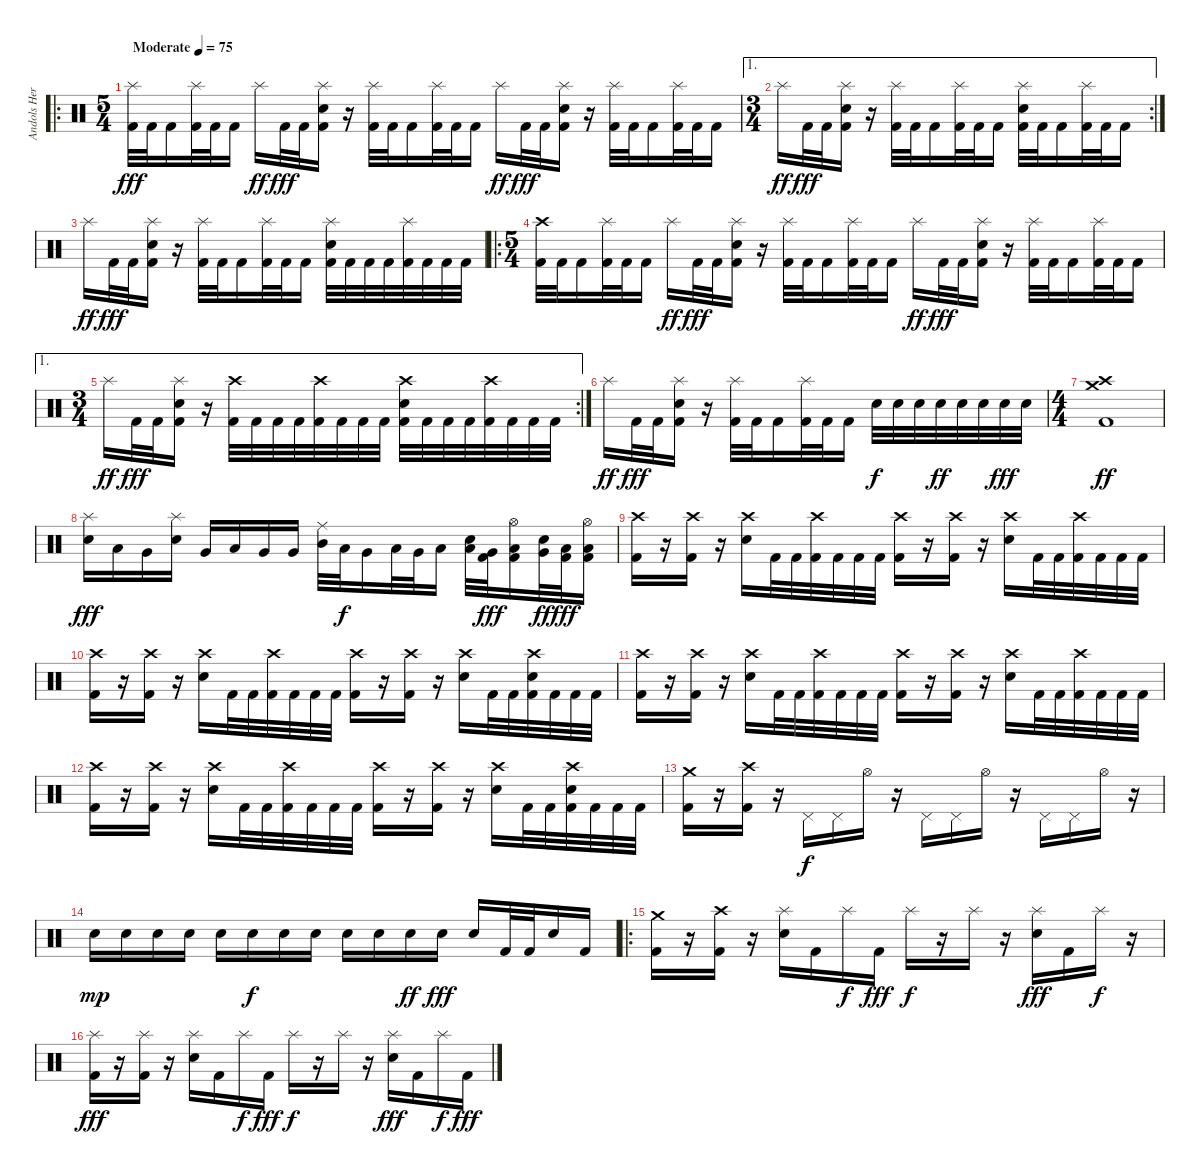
\track ("Andols Herrick" "Andols Her") {instrument percussion}
\staff {score}
\articulation defaults
\ro
\ts (5 4)
\tempo (75 "Moderate")
\clef neutral
\ks c
("Splash (hit)" "Kick (hit) 2").32{dy fff} "Kick (hit) 2".32 "Kick (hit) 2".16 ("Splash (hit)" "Kick (hit) 2").32 "Kick (hit) 2".32 "Kick (hit) 2".16 "Splash (hit)".16{dy ff} "Kick (hit) 2".32{dy fff} "Kick (hit) 2".32 ("Splash (hit)" "Snare (hit) 2" "Kick (hit) 2").16 r.16 ("Splash (hit)" "Kick (hit) 2").32 "Kick (hit) 2".32 "Kick (hit) 2".16 ("Splash (hit)" "Kick (hit) 2").32 "Kick (hit) 2".32 "Kick (hit) 2".16 "Splash (hit)".16{dy ff} "Kick (hit) 2".32{dy fff} "Kick (hit) 2".32 ("Splash (hit)" "Snare (hit) 2" "Kick (hit) 2").16 r.16 ("Splash (hit)" "Kick (hit) 2").32 "Kick (hit) 2".32 "Kick (hit) 2".16 ("Splash (hit)" "Kick (hit) 2").32 "Kick (hit) 2".32 "Kick (hit) 2".16 |
\ae 1
\rc 2
\ts (3 4)
"Splash (hit)".16{dy ff} "Kick (hit) 2".32{dy fff} "Kick (hit) 2".32 ("Splash (hit)" "Snare (hit) 2" "Kick (hit) 2").16 r.16 ("Splash (hit)" "Kick (hit) 2").32 "Kick (hit) 2".32 "Kick (hit) 2".16 ("Splash (hit)" "Kick (hit) 2").32 "Kick (hit) 2".32 "Kick (hit) 2".16 ("Splash (hit)" "Snare (hit) 2" "Kick (hit) 2").32 "Kick (hit) 2".32 "Kick (hit) 2".16 ("Splash (hit)" "Kick (hit) 2").32 "Kick (hit) 2".32 "Kick (hit) 2".16 |
"Splash (hit)".16{dy ff} "Kick (hit) 2".32{dy fff} "Kick (hit) 2".32 ("Splash (hit)" "Snare (hit) 2" "Kick (hit) 2").16 r.16 ("Splash (hit)" "Kick (hit) 2").32 "Kick (hit) 2".32 "Kick (hit) 2".16 ("Splash (hit)" "Kick (hit) 2").32 "Kick (hit) 2".32 "Kick (hit) 2".16 ("Splash (hit)" "Snare (hit) 2" "Kick (hit) 2").32 "Kick (hit) 2".32 "Kick (hit) 2".32 "Kick (hit) 2".32 ("Splash (hit)" "Kick (hit) 2").32 "Kick (hit) 2".32 "Kick (hit) 2".32 "Kick (hit) 2".32 |
\ro
\ts (5 4)
("Crash high (hit)" "Kick (hit) 2").32 "Kick (hit) 2".32 "Kick (hit) 2".16 ("Splash (hit)" "Kick (hit) 2").32 "Kick (hit) 2".32 "Kick (hit) 2".16 "Splash (hit)".16{dy ff} "Kick (hit) 2".32{dy fff} "Kick (hit) 2".32 ("Splash (hit)" "Snare (hit) 2" "Kick (hit) 2").16 r.16 ("Splash (hit)" "Kick (hit) 2").32 "Kick (hit) 2".32 "Kick (hit) 2".16 ("Splash (hit)" "Kick (hit) 2").32 "Kick (hit) 2".32 "Kick (hit) 2".16 "Splash (hit)".16{dy ff} "Kick (hit) 2".32{dy fff} "Kick (hit) 2".32 ("Splash (hit)" "Snare (hit) 2" "Kick (hit) 2").16 r.16 ("Splash (hit)" "Kick (hit) 2").32 "Kick (hit) 2".32 "Kick (hit) 2".16 ("Splash (hit)" "Kick (hit) 2").32 "Kick (hit) 2".32 "Kick (hit) 2".16 |
\ae 1
\rc 2
\ts (3 4)
"Splash (hit)".16{dy ff} "Kick (hit) 2".32{dy fff} "Kick (hit) 2".32 ("Splash (hit)" "Snare (hit) 2" "Kick (hit) 2").16 r.16 ("Crash high (hit)" "Kick (hit) 2").32 "Kick (hit) 2".32 "Kick (hit) 2".32 "Kick (hit) 2".32 ("Crash high (hit)" "Kick (hit) 2").32 "Kick (hit) 2".32 "Kick (hit) 2".32 "Kick (hit) 2".32 ("Crash high (hit)" "Snare (hit) 2" "Kick (hit) 2").32 "Kick (hit) 2".32 "Kick (hit) 2".32 "Kick (hit) 2".32 ("Crash high (hit)" "Kick (hit) 2").32 "Kick (hit) 2".32 "Kick (hit) 2".32 "Kick (hit) 2".32 |
"Splash (hit)".16{dy ff} "Kick (hit) 2".32{dy fff} "Kick (hit) 2".32 ("Splash (hit)" "Snare (hit) 2" "Kick (hit) 2").16 r.16 ("Splash (hit)" "Kick (hit) 2").32 "Kick (hit) 2".32 "Kick (hit) 2".16 ("Splash (hit)" "Kick (hit) 2").32 "Kick (hit) 2".32 "Kick (hit) 2".16 "Electric Snare (hit)".32{dy f} "Electric Snare (hit)".32 "Electric Snare (hit)".32 "Electric Snare (hit)".32{dy ff} "Electric Snare (hit)".32 "Electric Snare (hit)".32 "Electric Snare (hit)".32{dy fff} "Electric Snare (hit)".32 |
\ts (4 4)
("Crash high (hit)" "Crash medium (hit)" "Kick (hit) 2").1{dy ff} |
("Splash (hit)" "Snare (hit) 2").16{dy fff} "Low Tom (hit)".16 "Very Low Tom (hit)".16 ("Splash (hit)" "Snare (hit) 2").16 "Very Low Tom (hit)".16 "Low Floor Tom (hit)".16 "Very Low Tom (hit)".16 "Very Low Tom (hit)".16 ("Ride (middle)" "Mid Tom (hit)").32 "Low Tom (hit)".32{dy f} "Very Low Tom (hit)".16 "Low Tom (hit)".32 "Very Low Tom (hit)".32 "Low Floor Tom (hit)".16 ("Snare (hit) 2" "Low Tom (hit)").32 ("Very Low Tom (hit)" "Kick (hit) 2").32{dy fff} ("Hi-Hat (open)" "Low Floor Tom (hit)" "Kick (hit) 2").16 ("Snare (hit) 2" "Very Low Tom (hit)").32{dy ff} ("Low Floor Tom (hit)" "Kick (hit) 2").32{dy fff} ("Hi-Hat (open)" "Low Floor Tom (hit)" "Kick (hit) 2").16 |
("Crash high (hit)" "Kick (hit) 2").16 r.16 ("Crash high (hit)" "Kick (hit) 2").16 r.16 ("Crash high (hit)" "Snare (hit) 2").16 "Kick (hit) 2".32 "Kick (hit) 2".32 ("Crash high (hit)" "Kick (hit) 2").32 "Kick (hit) 2".32 "Kick (hit) 2".32 "Kick (hit) 2".32 ("Crash high (hit)" "Kick (hit) 2").16 r.16 ("Crash high (hit)" "Kick (hit) 2").16 r.16 ("Crash high (hit)" "Snare (hit) 2").16 "Kick (hit) 2".32 "Kick (hit) 2".32 ("Crash high (hit)" "Kick (hit) 2").32 "Kick (hit) 2".32 "Kick (hit) 2".32 "Kick (hit) 2".32 |
("Crash high (hit)" "Kick (hit) 2").16 r.16 ("Crash high (hit)" "Kick (hit) 2").16 r.16 ("Crash high (hit)" "Snare (hit) 2").16 "Kick (hit) 2".32 "Kick (hit) 2".32 ("Crash high (hit)" "Kick (hit) 2").32 "Kick (hit) 2".32 "Kick (hit) 2".32 "Kick (hit) 2".32 ("Crash high (hit)" "Kick (hit) 2").16 r.16 ("Crash high (hit)" "Kick (hit) 2").16 r.16 ("Crash high (hit)" "Snare (hit) 2").16 "Kick (hit) 2".32 "Kick (hit) 2".32 ("Crash high (hit)" "Snare (hit) 2" "Kick (hit) 2").32 "Kick (hit) 2".32 "Kick (hit) 2".32 "Kick (hit) 2".32 |
("Crash high (hit)" "Kick (hit) 2").16 r.16 ("Crash high (hit)" "Kick (hit) 2").16 r.16 ("Crash high (hit)" "Snare (hit) 2").16 "Kick (hit) 2".32 "Kick (hit) 2".32 ("Crash high (hit)" "Kick (hit) 2").32 "Kick (hit) 2".32 "Kick (hit) 2".32 "Kick (hit) 2".32 ("Crash high (hit)" "Kick (hit) 2").16 r.16 ("Crash high (hit)" "Kick (hit) 2").16 r.16 ("Crash high (hit)" "Snare (hit) 2").16 "Kick (hit) 2".32 "Kick (hit) 2".32 ("Crash high (hit)" "Kick (hit) 2").32 "Kick (hit) 2".32 "Kick (hit) 2".32 "Kick (hit) 2".32 |
("Crash high (hit)" "Kick (hit) 2").16 r.16 ("Crash high (hit)" "Kick (hit) 2").16 r.16 ("Crash high (hit)" "Snare (hit) 2").16 "Kick (hit) 2".32 "Kick (hit) 2".32 ("Crash high (hit)" "Kick (hit) 2").32 "Kick (hit) 2".32 "Kick (hit) 2".32 "Kick (hit) 2".32 ("Crash high (hit)" "Kick (hit) 2").16 r.16 ("Crash high (hit)" "Kick (hit) 2").16 r.16 ("Crash high (hit)" "Snare (hit) 2").16 "Kick (hit) 2".32 "Kick (hit) 2".32 ("Crash high (hit)" "Snare (hit) 2" "Kick (hit) 2").32 "Kick (hit) 2".32 "Kick (hit) 2".32 "Kick (hit) 2".32 |
("Crash medium (hit)" "Kick (hit) 2").16 r.16 ("Crash high (hit)" "Kick (hit) 2").16 r.16 "Pedal Hi-Hat (hit)".16{dy f} "Pedal Hi-Hat (hit)".16 "Hi-Hat (open)".16 r.16 "Pedal Hi-Hat (hit)".16 "Pedal Hi-Hat (hit)".16 "Hi-Hat (open)".16 r.16 "Pedal Hi-Hat (hit)".16 "Pedal Hi-Hat (hit)".16 "Hi-Hat (open)".16 r.16 |
"Snare (hit) 2".16{dy mp} "Snare (hit) 2".16 "Snare (hit) 2".16 "Snare (hit) 2".16 "Snare (hit) 2".16 "Snare (hit) 2".16{dy f} "Snare (hit) 2".16 "Snare (hit) 2".16 "Snare (hit) 2".16 "Snare (hit) 2".16 "Snare (hit) 2".16{dy ff} "Snare (hit) 2".16{dy fff} "Snare (hit) 2".16 "Kick (hit) 2".32 "Kick (hit) 2".32 "Snare (hit) 2".16 "Kick (hit) 2".16 |
\ro
("Crash medium (hit)" "Kick (hit) 2").16 r.16 ("Crash high (hit)" "Kick (hit) 2").16 r.16 ("Splash (hit)" "Snare (hit) 2").16 "Kick (hit) 2".16 "Splash (hit)".16{dy f} "Kick (hit) 2".16{dy fff} "Splash (hit)".16{dy f} r.16 "Splash (hit)".16 r.16 ("Splash (hit)" "Snare (hit) 2").16{dy fff} "Kick (hit) 2".16 "Splash (hit)".16{dy f} r.16 |
("Splash (hit)" "Kick (hit) 2").16{dy fff} r.16 ("Splash (hit)" "Kick (hit) 2").16 r.16 ("Splash (hit)" "Snare (hit) 2").16 "Kick (hit) 2".16 "Splash (hit)".16{dy f} "Kick (hit) 2".16{dy fff} "Splash (hit)".16{dy f} r.16 "Splash (hit)".16 r.16 ("Splash (hit)" "Snare (hit) 2").16{dy fff} "Kick (hit) 2".16 "Splash (hit)".16{dy f} "Kick (hit) 2".16{dy fff}
